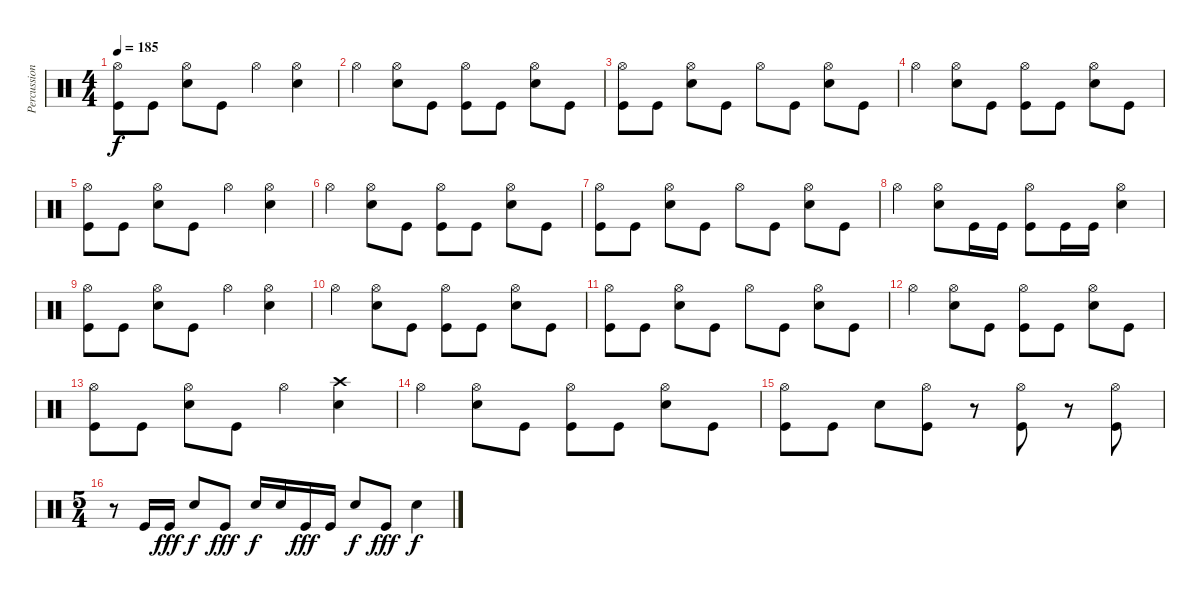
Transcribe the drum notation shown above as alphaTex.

\track ("Percussion" "Percussion") {instrument percussion}
\staff {score}
\articulation defaults
\ts (4 4)
\tempo 185
\clef neutral
\ks c
("Hi-Hat (open)" "Kick (hit)").8{dy f volume 13} "Kick (hit)".8 ("Hi-Hat (open)" "Snare (hit) 2").8 "Kick (hit)".8 "Hi-Hat (open)".4 ("Hi-Hat (open)" "Snare (hit) 2").4 |
"Hi-Hat (open)".4 ("Hi-Hat (open)" "Snare (hit) 2").8 "Kick (hit)".8 ("Hi-Hat (open)" "Kick (hit)").8 "Kick (hit)".8 ("Hi-Hat (open)" "Snare (hit) 2").8 "Kick (hit)".8 |
("Hi-Hat (open)" "Kick (hit)").8 "Kick (hit)".8 ("Hi-Hat (open)" "Snare (hit) 2").8 "Kick (hit)".8 "Hi-Hat (open)".8 "Kick (hit)".8 ("Hi-Hat (open)" "Snare (hit) 2").8 "Kick (hit)".8 |
"Hi-Hat (open)".4 ("Hi-Hat (open)" "Snare (hit) 2").8 "Kick (hit)".8 ("Hi-Hat (open)" "Kick (hit)").8 "Kick (hit)".8 ("Hi-Hat (open)" "Snare (hit) 2").8 "Kick (hit)".8 |
("Hi-Hat (open)" "Kick (hit)").8 "Kick (hit)".8 ("Hi-Hat (open)" "Snare (hit) 2").8 "Kick (hit)".8 "Hi-Hat (open)".4 ("Hi-Hat (open)" "Snare (hit) 2").4 |
"Hi-Hat (open)".4 ("Hi-Hat (open)" "Snare (hit) 2").8 "Kick (hit)".8 ("Hi-Hat (open)" "Kick (hit)").8 "Kick (hit)".8 ("Hi-Hat (open)" "Snare (hit) 2").8 "Kick (hit)".8 |
("Hi-Hat (open)" "Kick (hit)").8 "Kick (hit)".8 ("Hi-Hat (open)" "Snare (hit) 2").8 "Kick (hit)".8 "Hi-Hat (open)".8 "Kick (hit)".8 ("Hi-Hat (open)" "Snare (hit) 2").8 "Kick (hit)".8 |
"Hi-Hat (open)".4 ("Hi-Hat (open)" "Snare (hit) 2").8 "Kick (hit)".16 "Kick (hit)".16 ("Hi-Hat (open)" "Kick (hit)").8 "Kick (hit)".16 "Kick (hit)".16 ("Hi-Hat (open)" "Snare (hit) 2").4 |
("Hi-Hat (open)" "Kick (hit)").8 "Kick (hit)".8 ("Hi-Hat (open)" "Snare (hit) 2").8 "Kick (hit)".8 "Hi-Hat (open)".4 ("Hi-Hat (open)" "Snare (hit) 2").4 |
"Hi-Hat (open)".4 ("Hi-Hat (open)" "Snare (hit) 2").8 "Kick (hit)".8 ("Hi-Hat (open)" "Kick (hit)").8 "Kick (hit)".8 ("Hi-Hat (open)" "Snare (hit) 2").8 "Kick (hit)".8 |
("Hi-Hat (open)" "Kick (hit)").8 "Kick (hit)".8 ("Hi-Hat (open)" "Snare (hit) 2").8 "Kick (hit)".8 "Hi-Hat (open)".8 "Kick (hit)".8 ("Hi-Hat (open)" "Snare (hit) 2").8 "Kick (hit)".8 |
"Hi-Hat (open)".4 ("Hi-Hat (open)" "Snare (hit) 2").8 "Kick (hit)".8 ("Hi-Hat (open)" "Kick (hit)").8 "Kick (hit)".8 ("Hi-Hat (open)" "Snare (hit) 2").8 "Kick (hit)".8 |
("Hi-Hat (open)" "Kick (hit)").8 "Kick (hit)".8 ("Hi-Hat (open)" "Snare (hit) 2").8 "Kick (hit)".8 "Hi-Hat (open)".4 ("Crash high (hit)" "Snare (hit) 2").4 |
"Hi-Hat (open)".4 ("Hi-Hat (open)" "Snare (hit) 2").8 "Kick (hit)".8 ("Hi-Hat (open)" "Kick (hit)").8 "Kick (hit)".8 ("Hi-Hat (open)" "Snare (hit) 2").8 "Kick (hit)".8 |
("Hi-Hat (open)" "Kick (hit)").8 "Kick (hit)".8 "Snare (hit) 2".8 ("Hi-Hat (open)" "Kick (hit)").8 r.8{volume 0} ("Hi-Hat (open)" "Kick (hit)").8{volume 13} r.8{volume 0} ("Hi-Hat (open)" "Kick (hit)").8{volume 13} |
\ts (5 4)
r.8{volume 0} "Kick (hit)".16{volume 13} "Kick (hit)".16{dy fff} "Snare (hit) 2".8{dy f} "Kick (hit)".8{dy fff} "Snare (hit) 2".16{dy f} "Snare (hit) 2".16 "Kick (hit)".16{dy fff} "Kick (hit)".16 "Snare (hit) 2".8{dy f} "Kick (hit)".8{dy fff} "Snare (hit) 2".4{dy f}
